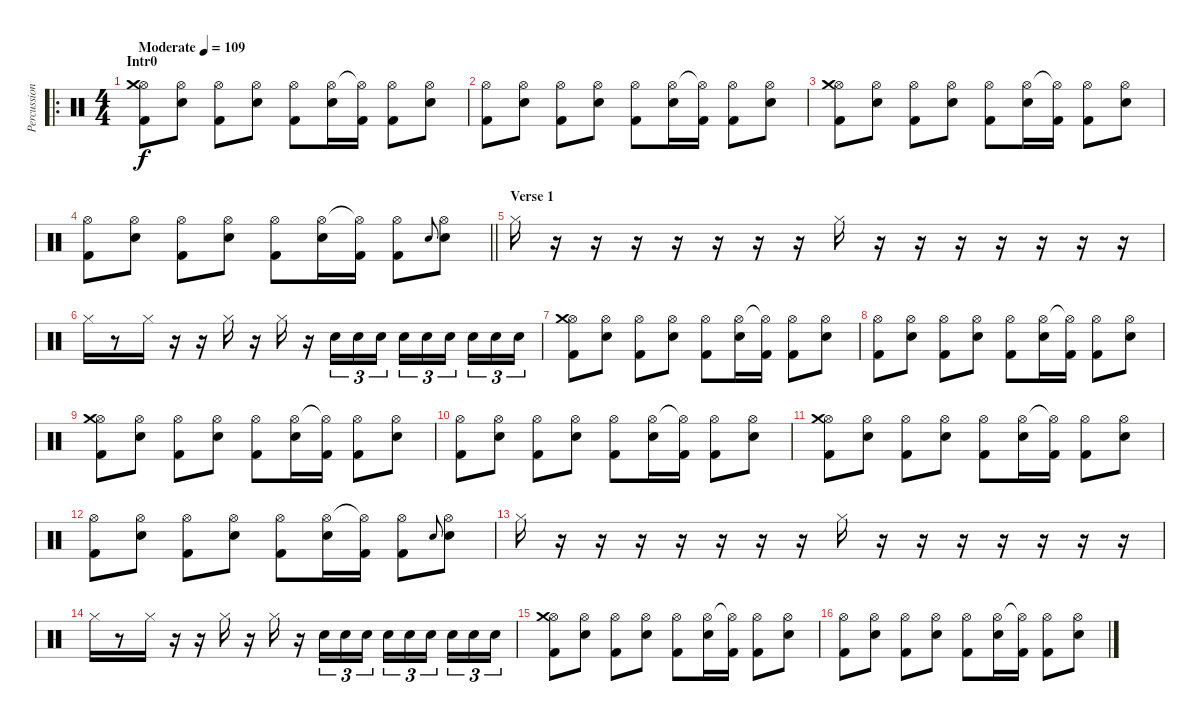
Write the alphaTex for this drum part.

\track ("Percussion" "Percussion") {instrument percussion}
\staff {score}
\articulation defaults
\ro
\ts (4 4)
\section ("" "Intr0")
\tempo (109 "Moderate")
\clef neutral
\ks c
("Hi-Hat (open)" "Crash medium (hit)" "Kick (hit) 2").8{dy f} ("Hi-Hat (open)" "Electric Snare (hit)").8 ("Hi-Hat (open)" "Kick (hit) 2").8 ("Hi-Hat (open)" "Electric Snare (hit)").8 ("Hi-Hat (open)" "Kick (hit) 2").8 ("Hi-Hat (open)" "Electric Snare (hit)").16 ("Hi-Hat (open)"{t} "Kick (hit) 2").16 ("Hi-Hat (open)" "Kick (hit) 2").8 ("Hi-Hat (open)" "Electric Snare (hit)").8 |
("Hi-Hat (open)" "Kick (hit) 2").8 ("Hi-Hat (open)" "Electric Snare (hit)").8 ("Hi-Hat (open)" "Kick (hit) 2").8 ("Hi-Hat (open)" "Electric Snare (hit)").8 ("Hi-Hat (open)" "Kick (hit) 2").8 ("Hi-Hat (open)" "Electric Snare (hit)").16 ("Hi-Hat (open)"{t} "Kick (hit) 2").16 ("Hi-Hat (open)" "Kick (hit) 2").8 ("Hi-Hat (open)" "Electric Snare (hit)").8 |
("Hi-Hat (open)" "Crash medium (hit)" "Kick (hit) 2").8 ("Hi-Hat (open)" "Electric Snare (hit)").8 ("Hi-Hat (open)" "Kick (hit) 2").8 ("Hi-Hat (open)" "Electric Snare (hit)").8 ("Hi-Hat (open)" "Kick (hit) 2").8 ("Hi-Hat (open)" "Electric Snare (hit)").16 ("Hi-Hat (open)"{t} "Kick (hit) 2").16 ("Hi-Hat (open)" "Kick (hit) 2").8 ("Hi-Hat (open)" "Electric Snare (hit)").8 |
\barLineRight lightlight
("Hi-Hat (open)" "Kick (hit) 2").8 ("Hi-Hat (open)" "Electric Snare (hit)").8 ("Hi-Hat (open)" "Kick (hit) 2").8 ("Hi-Hat (open)" "Electric Snare (hit)").8 ("Hi-Hat (open)" "Kick (hit) 2").8 ("Hi-Hat (open)" "Electric Snare (hit)").16 ("Hi-Hat (open)"{t} "Kick (hit) 2").16 ("Hi-Hat (open)" "Kick (hit) 2").8 "Electric Snare (hit)".8{gr onbeat} ("Hi-Hat (open)" "Electric Snare (hit)").8 |
\section ("" "Verse 1")
"Hi-Hat (closed)".16 r.16 r.16 r.16 r.16 r.16 r.16 r.16 "Hi-Hat (closed)".16 r.16 r.16 r.16 r.16 r.16 r.16 r.16 |
"Hi-Hat (closed)".16 r.8 "Hi-Hat (closed)".16 r.16 r.16 "Hi-Hat (closed)".16 r.16 "Hi-Hat (closed)".16 r.16 "Electric Snare (hit)".16{tu (3 2)} "Electric Snare (hit)".16{tu (3 2)} "Electric Snare (hit)".16{tu (3 2)} "Electric Snare (hit)".16{tu (3 2)} "Electric Snare (hit)".16{tu (3 2)} "Electric Snare (hit)".16{tu (3 2) beam splitsecondary} "Electric Snare (hit)".16{tu (3 2)} "Electric Snare (hit)".16{tu (3 2)} "Electric Snare (hit)".16{tu (3 2)} |
("Hi-Hat (open)" "Crash medium (hit)" "Kick (hit) 2").8 ("Hi-Hat (open)" "Electric Snare (hit)").8 ("Hi-Hat (open)" "Kick (hit) 2").8 ("Hi-Hat (open)" "Electric Snare (hit)").8 ("Hi-Hat (open)" "Kick (hit) 2").8 ("Hi-Hat (open)" "Electric Snare (hit)").16 ("Hi-Hat (open)"{t} "Kick (hit) 2").16 ("Hi-Hat (open)" "Kick (hit) 2").8 ("Hi-Hat (open)" "Electric Snare (hit)").8 |
("Hi-Hat (open)" "Kick (hit) 2").8 ("Hi-Hat (open)" "Electric Snare (hit)").8 ("Hi-Hat (open)" "Kick (hit) 2").8 ("Hi-Hat (open)" "Electric Snare (hit)").8 ("Hi-Hat (open)" "Kick (hit) 2").8 ("Hi-Hat (open)" "Electric Snare (hit)").16 ("Hi-Hat (open)"{t} "Kick (hit) 2").16 ("Hi-Hat (open)" "Kick (hit) 2").8 ("Hi-Hat (open)" "Electric Snare (hit)").8 |
("Hi-Hat (open)" "Crash medium (hit)" "Kick (hit) 2").8 ("Hi-Hat (open)" "Electric Snare (hit)").8 ("Hi-Hat (open)" "Kick (hit) 2").8 ("Hi-Hat (open)" "Electric Snare (hit)").8 ("Hi-Hat (open)" "Kick (hit) 2").8 ("Hi-Hat (open)" "Electric Snare (hit)").16 ("Hi-Hat (open)"{t} "Kick (hit) 2").16 ("Hi-Hat (open)" "Kick (hit) 2").8 ("Hi-Hat (open)" "Electric Snare (hit)").8 |
("Hi-Hat (open)" "Kick (hit) 2").8 ("Hi-Hat (open)" "Electric Snare (hit)").8 ("Hi-Hat (open)" "Kick (hit) 2").8 ("Hi-Hat (open)" "Electric Snare (hit)").8 ("Hi-Hat (open)" "Kick (hit) 2").8 ("Hi-Hat (open)" "Electric Snare (hit)").16 ("Hi-Hat (open)"{t} "Kick (hit) 2").16 ("Hi-Hat (open)" "Kick (hit) 2").8 ("Hi-Hat (open)" "Electric Snare (hit)").8 |
("Hi-Hat (open)" "Crash medium (hit)" "Kick (hit) 2").8 ("Hi-Hat (open)" "Electric Snare (hit)").8 ("Hi-Hat (open)" "Kick (hit) 2").8 ("Hi-Hat (open)" "Electric Snare (hit)").8 ("Hi-Hat (open)" "Kick (hit) 2").8 ("Hi-Hat (open)" "Electric Snare (hit)").16 ("Hi-Hat (open)"{t} "Kick (hit) 2").16 ("Hi-Hat (open)" "Kick (hit) 2").8 ("Hi-Hat (open)" "Electric Snare (hit)").8 |
("Hi-Hat (open)" "Kick (hit) 2").8 ("Hi-Hat (open)" "Electric Snare (hit)").8 ("Hi-Hat (open)" "Kick (hit) 2").8 ("Hi-Hat (open)" "Electric Snare (hit)").8 ("Hi-Hat (open)" "Kick (hit) 2").8 ("Hi-Hat (open)" "Electric Snare (hit)").16 ("Hi-Hat (open)"{t} "Kick (hit) 2").16 ("Hi-Hat (open)" "Kick (hit) 2").8 "Electric Snare (hit)".8{gr onbeat} ("Hi-Hat (open)" "Electric Snare (hit)").8 |
"Hi-Hat (closed)".16 r.16 r.16 r.16 r.16 r.16 r.16 r.16 "Hi-Hat (closed)".16 r.16 r.16 r.16 r.16 r.16 r.16 r.16 |
"Hi-Hat (closed)".16 r.8 "Hi-Hat (closed)".16 r.16 r.16 "Hi-Hat (closed)".16 r.16 "Hi-Hat (closed)".16 r.16 "Electric Snare (hit)".16{tu (3 2)} "Electric Snare (hit)".16{tu (3 2)} "Electric Snare (hit)".16{tu (3 2)} "Electric Snare (hit)".16{tu (3 2)} "Electric Snare (hit)".16{tu (3 2)} "Electric Snare (hit)".16{tu (3 2) beam splitsecondary} "Electric Snare (hit)".16{tu (3 2)} "Electric Snare (hit)".16{tu (3 2)} "Electric Snare (hit)".16{tu (3 2)} |
("Hi-Hat (open)" "Crash medium (hit)" "Kick (hit) 2").8 ("Hi-Hat (open)" "Electric Snare (hit)").8 ("Hi-Hat (open)" "Kick (hit) 2").8 ("Hi-Hat (open)" "Electric Snare (hit)").8 ("Hi-Hat (open)" "Kick (hit) 2").8 ("Hi-Hat (open)" "Electric Snare (hit)").16 ("Hi-Hat (open)"{t} "Kick (hit) 2").16 ("Hi-Hat (open)" "Kick (hit) 2").8 ("Hi-Hat (open)" "Electric Snare (hit)").8 |
("Hi-Hat (open)" "Kick (hit) 2").8 ("Hi-Hat (open)" "Electric Snare (hit)").8 ("Hi-Hat (open)" "Kick (hit) 2").8 ("Hi-Hat (open)" "Electric Snare (hit)").8 ("Hi-Hat (open)" "Kick (hit) 2").8 ("Hi-Hat (open)" "Electric Snare (hit)").16 ("Hi-Hat (open)"{t} "Kick (hit) 2").16 ("Hi-Hat (open)" "Kick (hit) 2").8 ("Hi-Hat (open)" "Electric Snare (hit)").8
